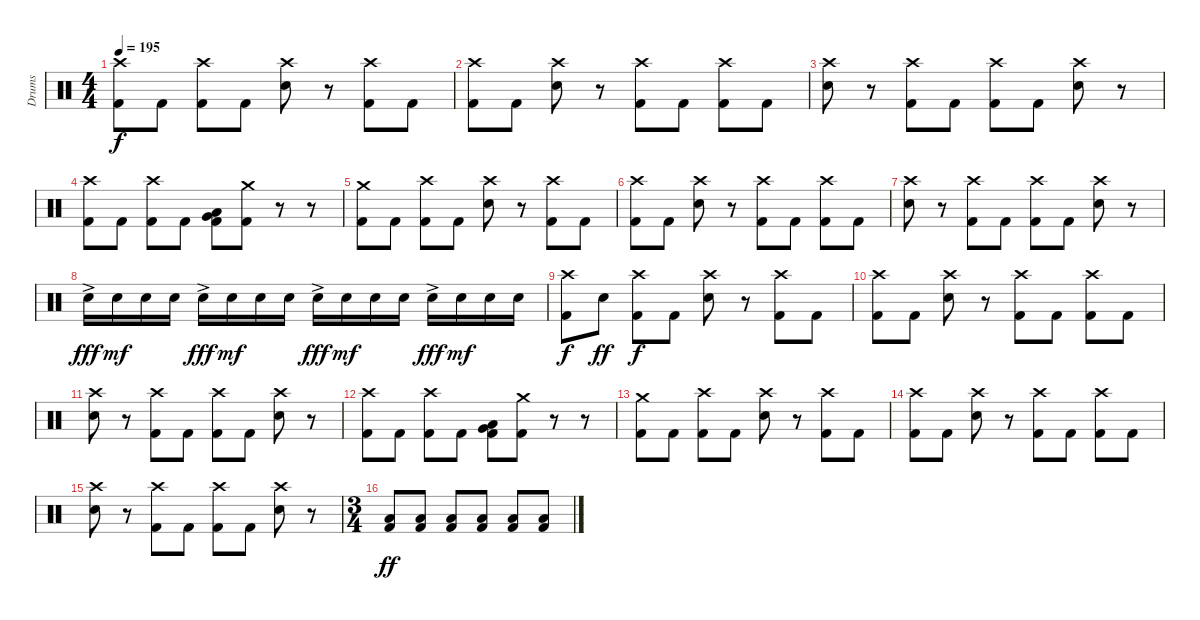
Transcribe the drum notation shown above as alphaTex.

\track ("Drums" "Drums") {instrument percussion}
\staff {score}
\articulation defaults
\ts (4 4)
\tempo 195
\clef neutral
\ks c
("Crash high (hit)" "Kick (hit) 2").8{dy f} "Kick (hit) 2".8 ("Crash high (hit)" "Kick (hit) 2").8 "Kick (hit) 2".8 ("Crash high (hit)" "Electric Snare (hit)").8 r.8 ("Crash high (hit)" "Kick (hit) 2").8 "Kick (hit) 2".8 |
("Crash high (hit)" "Kick (hit) 2").8 "Kick (hit) 2".8 ("Crash high (hit)" "Electric Snare (hit)").8 r.8 ("Crash high (hit)" "Kick (hit) 2").8 "Kick (hit) 2".8 ("Crash high (hit)" "Kick (hit) 2").8 "Kick (hit) 2".8 |
("Crash high (hit)" "Electric Snare (hit)").8 r.8 ("Crash high (hit)" "Kick (hit) 2").8 "Kick (hit) 2".8 ("Crash high (hit)" "Kick (hit) 2").8 "Kick (hit) 2".8 ("Crash high (hit)" "Electric Snare (hit)").8 r.8 |
("Crash high (hit)" "Kick (hit) 2").8 "Kick (hit) 2".8 ("Crash high (hit)" "Kick (hit) 2").8 "Kick (hit) 2".8 ("Very Low Tom (hit)" "Low Floor Tom (hit)" "Kick (hit) 2").8 ("Crash medium (hit)" "Kick (hit) 2").8 r.8 r.8 |
("Crash medium (hit)" "Kick (hit) 2").8 "Kick (hit) 2".8 ("Crash high (hit)" "Kick (hit) 2").8 "Kick (hit) 2".8 ("Crash high (hit)" "Electric Snare (hit)").8 r.8 ("Crash high (hit)" "Kick (hit) 2").8 "Kick (hit) 2".8 |
("Crash high (hit)" "Kick (hit) 2").8 "Kick (hit) 2".8 ("Crash high (hit)" "Electric Snare (hit)").8 r.8 ("Crash high (hit)" "Kick (hit) 2").8 "Kick (hit) 2".8 ("Crash high (hit)" "Kick (hit) 2").8 "Kick (hit) 2".8 |
("Crash high (hit)" "Electric Snare (hit)").8 r.8 ("Crash high (hit)" "Kick (hit) 2").8 "Kick (hit) 2".8 ("Crash high (hit)" "Kick (hit) 2").8 "Kick (hit) 2".8 ("Crash high (hit)" "Electric Snare (hit)").8 r.8 |
"Electric Snare (hit)"{ac}.16{dy fff} "Electric Snare (hit)".16{dy mf} "Electric Snare (hit)".16 "Electric Snare (hit)".16 "Electric Snare (hit)"{ac}.16{dy fff} "Electric Snare (hit)".16{dy mf} "Electric Snare (hit)".16 "Electric Snare (hit)".16 "Electric Snare (hit)"{ac}.16{dy fff} "Electric Snare (hit)".16{dy mf} "Electric Snare (hit)".16 "Electric Snare (hit)".16 "Electric Snare (hit)"{ac}.16{dy fff} "Electric Snare (hit)".16{dy mf} "Electric Snare (hit)".16 "Electric Snare (hit)".16 |
("Crash high (hit)" "Kick (hit) 2").8{dy f} "Electric Snare (hit)".8{dy ff} ("Crash high (hit)" "Kick (hit) 2").8{dy f} "Kick (hit) 2".8 ("Crash high (hit)" "Electric Snare (hit)").8 r.8 ("Crash high (hit)" "Kick (hit) 2").8 "Kick (hit) 2".8 |
("Crash high (hit)" "Kick (hit) 2").8 "Kick (hit) 2".8 ("Crash high (hit)" "Electric Snare (hit)").8 r.8 ("Crash high (hit)" "Kick (hit) 2").8 "Kick (hit) 2".8 ("Crash high (hit)" "Kick (hit) 2").8 "Kick (hit) 2".8 |
("Crash high (hit)" "Electric Snare (hit)").8 r.8 ("Crash high (hit)" "Kick (hit) 2").8 "Kick (hit) 2".8 ("Crash high (hit)" "Kick (hit) 2").8 "Kick (hit) 2".8 ("Crash high (hit)" "Electric Snare (hit)").8 r.8 |
("Crash high (hit)" "Kick (hit) 2").8 "Kick (hit) 2".8 ("Crash high (hit)" "Kick (hit) 2").8 "Kick (hit) 2".8 ("Very Low Tom (hit)" "Low Floor Tom (hit)" "Kick (hit) 2").8 ("Crash medium (hit)" "Kick (hit) 2").8 r.8 r.8 |
("Crash medium (hit)" "Kick (hit) 2").8 "Kick (hit) 2".8 ("Crash high (hit)" "Kick (hit) 2").8 "Kick (hit) 2".8 ("Crash high (hit)" "Electric Snare (hit)").8 r.8 ("Crash high (hit)" "Kick (hit) 2").8 "Kick (hit) 2".8 |
("Crash high (hit)" "Kick (hit) 2").8 "Kick (hit) 2".8 ("Crash high (hit)" "Electric Snare (hit)").8 r.8 ("Crash high (hit)" "Kick (hit) 2").8 "Kick (hit) 2".8 ("Crash high (hit)" "Kick (hit) 2").8 "Kick (hit) 2".8 |
("Crash high (hit)" "Electric Snare (hit)").8 r.8 ("Crash high (hit)" "Kick (hit) 2").8 "Kick (hit) 2".8 ("Crash high (hit)" "Kick (hit) 2").8 "Kick (hit) 2".8 ("Crash high (hit)" "Electric Snare (hit)").8 r.8 |
\ts (3 4)
("Low Floor Tom (hit)" "Kick (hit) 2").8{dy ff} ("Low Floor Tom (hit)" "Kick (hit) 2").8 ("Low Floor Tom (hit)" "Kick (hit) 2").8 ("Low Floor Tom (hit)" "Kick (hit) 2").8 ("Low Floor Tom (hit)" "Kick (hit) 2").8 ("Low Floor Tom (hit)" "Kick (hit) 2").8
